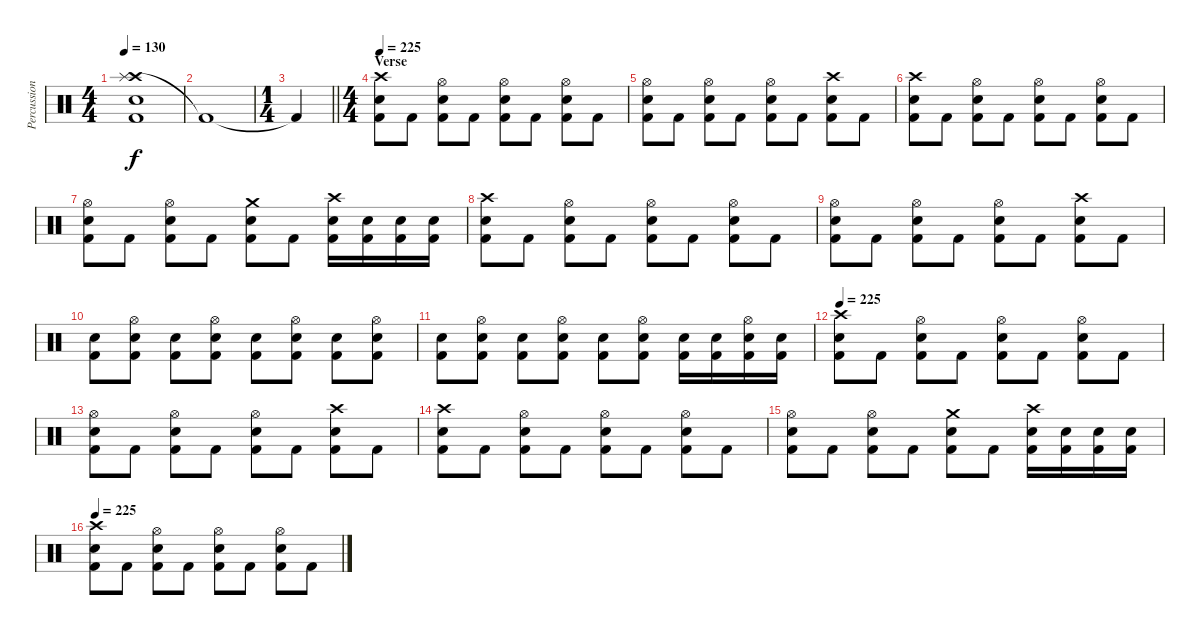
\track ("Percussion" "Percussion") {instrument percussion}
\staff {score}
\articulation defaults
\ts (4 4)
\tempo 130
\clef neutral
\ks c
("Crash high (hit)" "Splash (hit)" "Electric Snare (hit)" "Kick (hit) 2").1{dy f} |
"Kick (hit) 2"{t}.1 |
\ts (1 4)
\barLineRight lightlight "Kick (hit) 2"{t}.4
|
\ts (4 4)
\section ("" "Verse")
\tempo 225
("Crash high (hit)" "Electric Snare (hit)" "Kick (hit) 2").8 "Kick (hit) 2".8 ("Hi-Hat (open)" "Electric Snare (hit)" "Kick (hit) 2").8 "Kick (hit) 2".8 ("Hi-Hat (open)" "Electric Snare (hit)" "Kick (hit) 2").8 "Kick (hit) 2".8 ("Hi-Hat (open)" "Electric Snare (hit)" "Kick (hit) 2").8 "Kick (hit) 2".8 |
("Hi-Hat (open)" "Electric Snare (hit)" "Kick (hit) 2").8 "Kick (hit) 2".8 ("Hi-Hat (open)" "Electric Snare (hit)" "Kick (hit) 2").8 "Kick (hit) 2".8 ("Hi-Hat (open)" "Electric Snare (hit)" "Kick (hit) 2").8 "Kick (hit) 2".8 ("Crash high (hit)" "Electric Snare (hit)" "Kick (hit) 2").8 "Kick (hit) 2".8 |
("Crash high (hit)" "Electric Snare (hit)" "Kick (hit) 2").8 "Kick (hit) 2".8 ("Hi-Hat (open)" "Electric Snare (hit)" "Kick (hit) 2").8 "Kick (hit) 2".8 ("Hi-Hat (open)" "Electric Snare (hit)" "Kick (hit) 2").8 "Kick (hit) 2".8 ("Hi-Hat (open)" "Electric Snare (hit)" "Kick (hit) 2").8 "Kick (hit) 2".8 |
("Hi-Hat (open)" "Electric Snare (hit)" "Kick (hit) 2").8 "Kick (hit) 2".8 ("Hi-Hat (open)" "Electric Snare (hit)" "Kick (hit) 2").8 "Kick (hit) 2".8 ("Crash medium (hit)" "Electric Snare (hit)" "Kick (hit) 2").8 "Kick (hit) 2".8 ("Crash high (hit)" "Electric Snare (hit)" "Kick (hit) 2").16 ("Electric Snare (hit)" "Kick (hit) 2").16 ("Electric Snare (hit)" "Kick (hit) 2").16 ("Electric Snare (hit)" "Kick (hit) 2").16 |
("Crash high (hit)" "Electric Snare (hit)" "Kick (hit) 2").8 "Kick (hit) 2".8 ("Hi-Hat (open)" "Electric Snare (hit)" "Kick (hit) 2").8 "Kick (hit) 2".8 ("Hi-Hat (open)" "Electric Snare (hit)" "Kick (hit) 2").8 "Kick (hit) 2".8 ("Hi-Hat (open)" "Electric Snare (hit)" "Kick (hit) 2").8 "Kick (hit) 2".8 |
("Hi-Hat (open)" "Electric Snare (hit)" "Kick (hit) 2").8 "Kick (hit) 2".8 ("Hi-Hat (open)" "Electric Snare (hit)" "Kick (hit) 2").8 "Kick (hit) 2".8 ("Hi-Hat (open)" "Electric Snare (hit)" "Kick (hit) 2").8 "Kick (hit) 2".8 ("Crash high (hit)" "Electric Snare (hit)" "Kick (hit) 2").8 "Kick (hit) 2".8 |
("Electric Snare (hit)" "Kick (hit) 2").8 ("Hi-Hat (open)" "Electric Snare (hit)" "Kick (hit) 2").8 ("Electric Snare (hit)" "Kick (hit) 2").8 ("Hi-Hat (open)" "Electric Snare (hit)" "Kick (hit) 2").8 ("Electric Snare (hit)" "Kick (hit) 2").8 ("Hi-Hat (open)" "Electric Snare (hit)" "Kick (hit) 2").8 ("Electric Snare (hit)" "Kick (hit) 2").8 ("Hi-Hat (open)" "Electric Snare (hit)" "Kick (hit) 2").8 |
("Electric Snare (hit)" "Kick (hit) 2").8 ("Hi-Hat (open)" "Electric Snare (hit)" "Kick (hit) 2").8 ("Electric Snare (hit)" "Kick (hit) 2").8 ("Hi-Hat (open)" "Electric Snare (hit)" "Kick (hit) 2").8 ("Electric Snare (hit)" "Kick (hit) 2").8 ("Hi-Hat (open)" "Electric Snare (hit)" "Kick (hit) 2").8 ("Electric Snare (hit)" "Kick (hit) 2").16 ("Electric Snare (hit)" "Kick (hit) 2").16 ("Hi-Hat (open)" "Electric Snare (hit)" "Kick (hit) 2").16 ("Electric Snare (hit)" "Kick (hit) 2").16 |
\tempo 225
("Crash high (hit)" "Electric Snare (hit)" "Kick (hit) 2").8 "Kick (hit) 2".8 ("Hi-Hat (open)" "Electric Snare (hit)" "Kick (hit) 2").8 "Kick (hit) 2".8 ("Hi-Hat (open)" "Electric Snare (hit)" "Kick (hit) 2").8 "Kick (hit) 2".8 ("Hi-Hat (open)" "Electric Snare (hit)" "Kick (hit) 2").8 "Kick (hit) 2".8 |
("Hi-Hat (open)" "Electric Snare (hit)" "Kick (hit) 2").8 "Kick (hit) 2".8 ("Hi-Hat (open)" "Electric Snare (hit)" "Kick (hit) 2").8 "Kick (hit) 2".8 ("Hi-Hat (open)" "Electric Snare (hit)" "Kick (hit) 2").8 "Kick (hit) 2".8 ("Crash high (hit)" "Electric Snare (hit)" "Kick (hit) 2").8 "Kick (hit) 2".8 |
("Crash high (hit)" "Electric Snare (hit)" "Kick (hit) 2").8 "Kick (hit) 2".8 ("Hi-Hat (open)" "Electric Snare (hit)" "Kick (hit) 2").8 "Kick (hit) 2".8 ("Hi-Hat (open)" "Electric Snare (hit)" "Kick (hit) 2").8 "Kick (hit) 2".8 ("Hi-Hat (open)" "Electric Snare (hit)" "Kick (hit) 2").8 "Kick (hit) 2".8 |
("Hi-Hat (open)" "Electric Snare (hit)" "Kick (hit) 2").8 "Kick (hit) 2".8 ("Hi-Hat (open)" "Electric Snare (hit)" "Kick (hit) 2").8 "Kick (hit) 2".8 ("Crash medium (hit)" "Electric Snare (hit)" "Kick (hit) 2").8 "Kick (hit) 2".8 ("Crash high (hit)" "Electric Snare (hit)" "Kick (hit) 2").16 ("Electric Snare (hit)" "Kick (hit) 2").16 ("Electric Snare (hit)" "Kick (hit) 2").16 ("Electric Snare (hit)" "Kick (hit) 2").16 |
\tempo 225
("Crash high (hit)" "Electric Snare (hit)" "Kick (hit) 2").8 "Kick (hit) 2".8 ("Hi-Hat (open)" "Electric Snare (hit)" "Kick (hit) 2").8 "Kick (hit) 2".8 ("Hi-Hat (open)" "Electric Snare (hit)" "Kick (hit) 2").8 "Kick (hit) 2".8 ("Hi-Hat (open)" "Electric Snare (hit)" "Kick (hit) 2").8 "Kick (hit) 2".8
